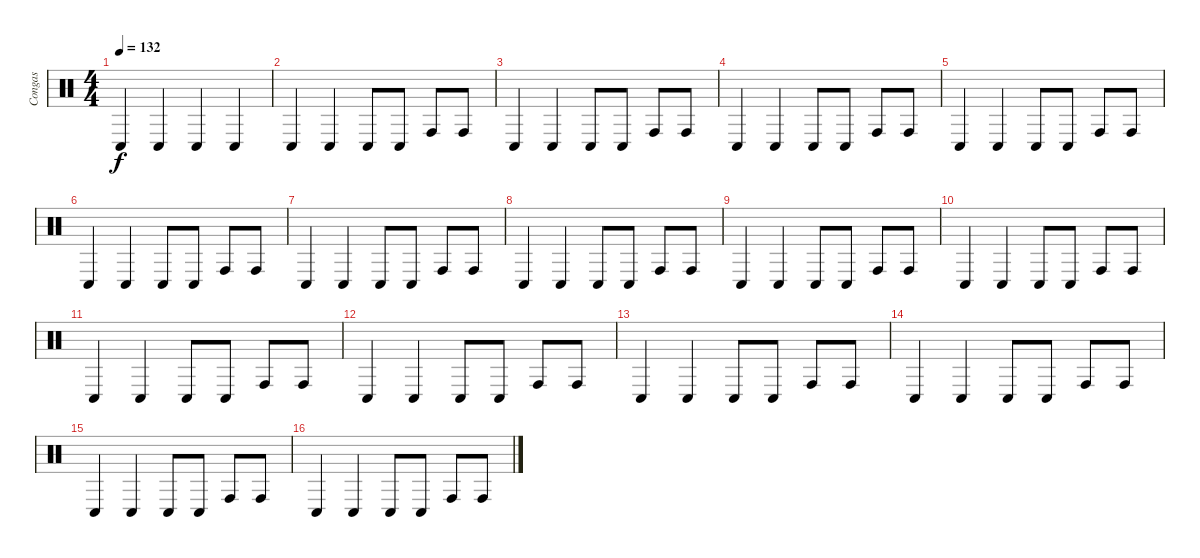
\track ("Congas" "Congas") {instrument percussion}
\staff {score}
\articulation defaults
\ts (4 4)
\tempo 132
\clef neutral
\ks c "Conga low (hit)".4{dy f} "Conga low (hit)".4 "Conga low (hit)".4 "Conga low (hit)".4
|
"Conga low (hit)".4 "Conga low (hit)".4 "Conga low (hit)".8 "Conga low (hit)".8 "Conga high (hit)".8 "Conga high (hit)".8 |
"Conga low (hit)".4 "Conga low (hit)".4 "Conga low (hit)".8 "Conga low (hit)".8 "Conga high (hit)".8 "Conga high (hit)".8 |
"Conga low (hit)".4 "Conga low (hit)".4 "Conga low (hit)".8 "Conga low (hit)".8 "Conga high (hit)".8 "Conga high (hit)".8 |
"Conga low (hit)".4 "Conga low (hit)".4 "Conga low (hit)".8 "Conga low (hit)".8 "Conga high (hit)".8 "Conga high (hit)".8 |
"Conga low (hit)".4 "Conga low (hit)".4 "Conga low (hit)".8 "Conga low (hit)".8 "Conga high (hit)".8 "Conga high (hit)".8 |
"Conga low (hit)".4 "Conga low (hit)".4 "Conga low (hit)".8 "Conga low (hit)".8 "Conga high (hit)".8 "Conga high (hit)".8 |
"Conga low (hit)".4 "Conga low (hit)".4 "Conga low (hit)".8 "Conga low (hit)".8 "Conga high (hit)".8 "Conga high (hit)".8 |
"Conga low (hit)".4 "Conga low (hit)".4 "Conga low (hit)".8 "Conga low (hit)".8 "Conga high (hit)".8 "Conga high (hit)".8 |
"Conga low (hit)".4 "Conga low (hit)".4 "Conga low (hit)".8 "Conga low (hit)".8 "Conga high (hit)".8 "Conga high (hit)".8 |
"Conga low (hit)".4 "Conga low (hit)".4 "Conga low (hit)".8 "Conga low (hit)".8 "Conga high (hit)".8 "Conga high (hit)".8 |
"Conga low (hit)".4 "Conga low (hit)".4 "Conga low (hit)".8 "Conga low (hit)".8 "Conga high (hit)".8 "Conga high (hit)".8 |
"Conga low (hit)".4 "Conga low (hit)".4 "Conga low (hit)".8 "Conga low (hit)".8 "Conga high (hit)".8 "Conga high (hit)".8 |
"Conga low (hit)".4 "Conga low (hit)".4 "Conga low (hit)".8 "Conga low (hit)".8 "Conga high (hit)".8 "Conga high (hit)".8 |
"Conga low (hit)".4 "Conga low (hit)".4 "Conga low (hit)".8 "Conga low (hit)".8 "Conga high (hit)".8 "Conga high (hit)".8 |
"Conga low (hit)".4 "Conga low (hit)".4 "Conga low (hit)".8 "Conga low (hit)".8 "Conga high (hit)".8 "Conga high (hit)".8
